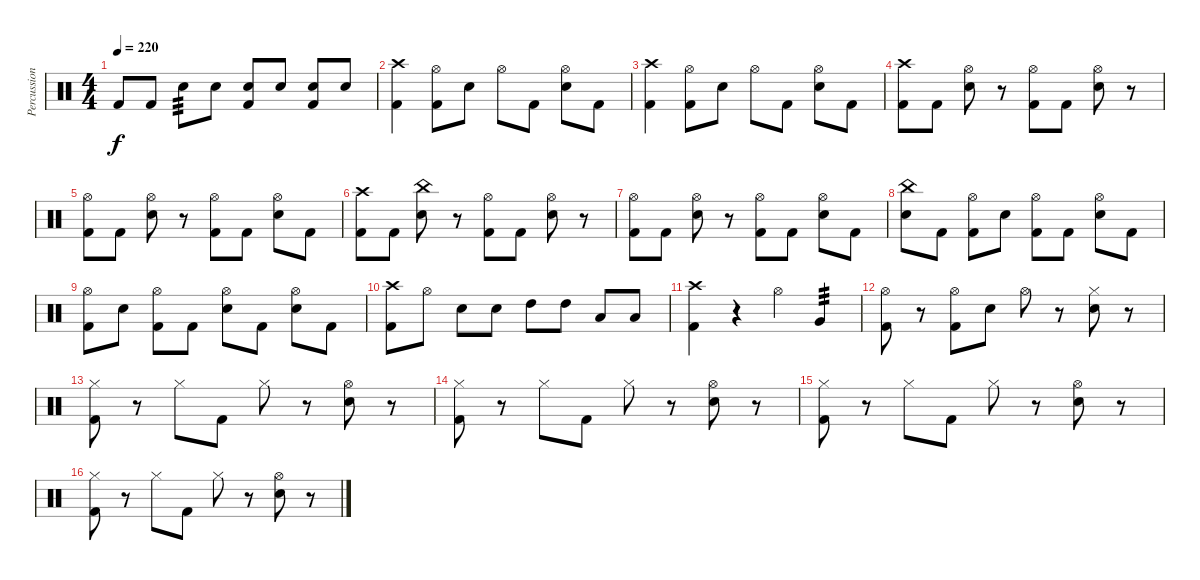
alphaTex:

\track ("Percussion" "Percussion") {instrument percussion}
\staff {score}
\articulation defaults
\ts (4 4)
\tempo 220
\clef neutral
\ks c "Kick (hit) 2".8{dy f} "Kick (hit) 2".8 "Electric Snare (hit)".8{tp 3} "Electric Snare (hit)".8
("Electric Snare (hit)" "Kick (hit) 2").8 "Electric Snare (hit)".8 ("Electric Snare (hit)" "Kick (hit) 2").8 "Electric Snare (hit)".8 |
("Crash high (hit)" "Kick (hit) 2").4 ("Hi-Hat (open)" "Kick (hit) 2").8 "Electric Snare (hit)".8 "Hi-Hat (open)".8 "Kick (hit) 2".8 ("Hi-Hat (open)" "Electric Snare (hit)").8 "Kick (hit) 2".8 |
("Crash high (hit)" "Kick (hit) 2").4 ("Hi-Hat (open)" "Kick (hit) 2").8 "Electric Snare (hit)".8 "Hi-Hat (open)".8 "Kick (hit) 2".8 ("Hi-Hat (open)" "Electric Snare (hit)").8 "Kick (hit) 2".8 |
("Crash high (hit)" "Kick (hit) 2").8 "Kick (hit) 2".8 ("Hi-Hat (open)" "Electric Snare (hit)").8 r.8 ("Hi-Hat (open)" "Kick (hit) 2").8 "Kick (hit) 2".8 ("Hi-Hat (open)" "Electric Snare (hit)").8 r.8 |
("Hi-Hat (open)" "Kick (hit) 2").8 "Kick (hit) 2".8 ("Hi-Hat (open)" "Electric Snare (hit)").8 r.8 ("Hi-Hat (open)" "Kick (hit) 2").8 "Kick (hit) 2".8 ("Hi-Hat (open)" "Electric Snare (hit)").8 "Kick (hit) 2".8 |
("Crash high (hit)" "Kick (hit) 2").8 "Kick (hit) 2".8 ("China (hit)" "Electric Snare (hit)").8 r.8 ("Hi-Hat (open)" "Kick (hit) 2").8 "Kick (hit) 2".8 ("Hi-Hat (open)" "Electric Snare (hit)").8 r.8 |
("Hi-Hat (open)" "Kick (hit) 2").8 "Kick (hit) 2".8 ("Hi-Hat (open)" "Electric Snare (hit)").8 r.8 ("Hi-Hat (open)" "Kick (hit) 2").8 "Kick (hit) 2".8 ("Hi-Hat (open)" "Electric Snare (hit)").8 "Kick (hit) 2".8 |
("China (hit)" "Electric Snare (hit)").8 "Kick (hit) 2".8 ("Hi-Hat (open)" "Kick (hit) 2").8 "Electric Snare (hit)".8 ("Hi-Hat (open)" "Kick (hit) 2").8 "Kick (hit) 2".8 ("Hi-Hat (open)" "Electric Snare (hit)").8 "Kick (hit) 2".8 |
("Hi-Hat (open)" "Kick (hit) 2").8 "Electric Snare (hit)".8 ("Hi-Hat (open)" "Kick (hit) 2").8 "Kick (hit) 2".8 ("Hi-Hat (open)" "Electric Snare (hit)").8 "Kick (hit) 2".8 ("Hi-Hat (open)" "Electric Snare (hit)").8 "Kick (hit) 2".8 |
("Crash high (hit)" "Kick (hit) 2").8 "Hi-Hat (open)".8 "Electric Snare (hit)".8 "Electric Snare (hit)".8 "High Tom (hit)".8 "High Tom (hit)".8 "Low Tom (hit)".8 "Low Tom (hit)".8 |
("Crash high (hit)" "Kick (hit) 2").4 r.4 "Hi-Hat (open)".4 "Very Low Tom (hit)".4{tp 3} |
("Hi-Hat (open)" "Kick (hit) 2").8 r.8 ("Hi-Hat (open)" "Kick (hit) 2").8 "Electric Snare (hit)".8 "Hi-Hat (open)".8 r.8 ("Hi-Hat (closed)" "Electric Snare (hit)").8 r.8 |
("Hi-Hat (closed)" "Kick (hit) 2").8 r.8 "Hi-Hat (closed)".8 "Kick (hit) 2".8 "Hi-Hat (closed)".8 r.8 ("Hi-Hat (open)" "Electric Snare (hit)").8 r.8 |
("Hi-Hat (closed)" "Kick (hit) 2").8 r.8 "Hi-Hat (closed)".8 "Kick (hit) 2".8 "Hi-Hat (closed)".8 r.8 ("Hi-Hat (open)" "Electric Snare (hit)").8 r.8 |
("Hi-Hat (closed)" "Kick (hit) 2").8 r.8 "Hi-Hat (closed)".8 "Kick (hit) 2".8 "Hi-Hat (closed)".8 r.8 ("Hi-Hat (open)" "Electric Snare (hit)").8 r.8 |
("Hi-Hat (closed)" "Kick (hit) 2").8 r.8 "Hi-Hat (closed)".8 "Kick (hit) 2".8 "Hi-Hat (closed)".8 r.8 ("Hi-Hat (open)" "Electric Snare (hit)").8 r.8
